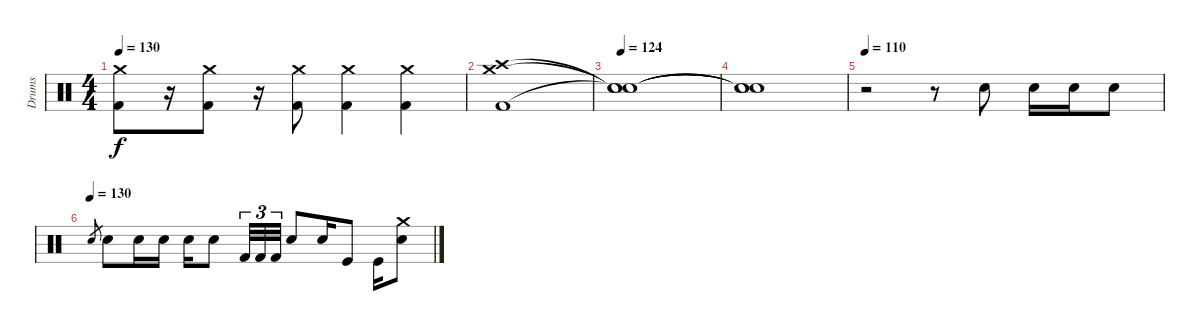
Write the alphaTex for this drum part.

\track ("Drums" "Drums") {instrument percussion}
\staff {score}
\articulation defaults
\ts (4 4)
\tempo 130
\clef neutral
\ks c
("Crash medium (hit)" "Kick (hit) 2").8{dy f} r.16 ("Crash medium (hit)" "Kick (hit) 2").8 r.16 ("Crash medium (hit)" "Kick (hit) 2").8 ("Crash medium (hit)" "Kick (hit) 2").4 ("Crash medium (hit)" "Kick (hit) 2").4 |
("Crash medium (hit)" "Crash high (hit)" "Kick (hit) 2").1 |
\tempo 124
("Snare (hit)"{t} "Snare (hit)"{t} "Snare (hit)"{t}).1 |
("Snare (hit)"{t} "Snare (hit)"{t} "Snare (hit)"{t}).1 |
\tempo 110
r.2 r.8 "Snare (hit) 2".8 "Snare (hit) 2".16 "Snare (hit) 2".16 "Snare (hit) 2".8 |
\tempo (130)
"Snare (hit) 2".8{gr} "Snare (hit) 2".8 "Snare (hit) 2".16 "Snare (hit) 2".16 "Snare (hit) 2".16 "Snare (hit) 2".8 "Kick (hit) 2".32{tu (3 2)} "Kick (hit) 2".32{tu (3 2)} "Kick (hit) 2".32{tu (3 2)} "Snare (hit) 2".8 "Snare (hit) 2".16 "Kick (hit)".8 "Kick (hit)".16 ("Crash medium (hit)" "Snare (hit) 2").8
